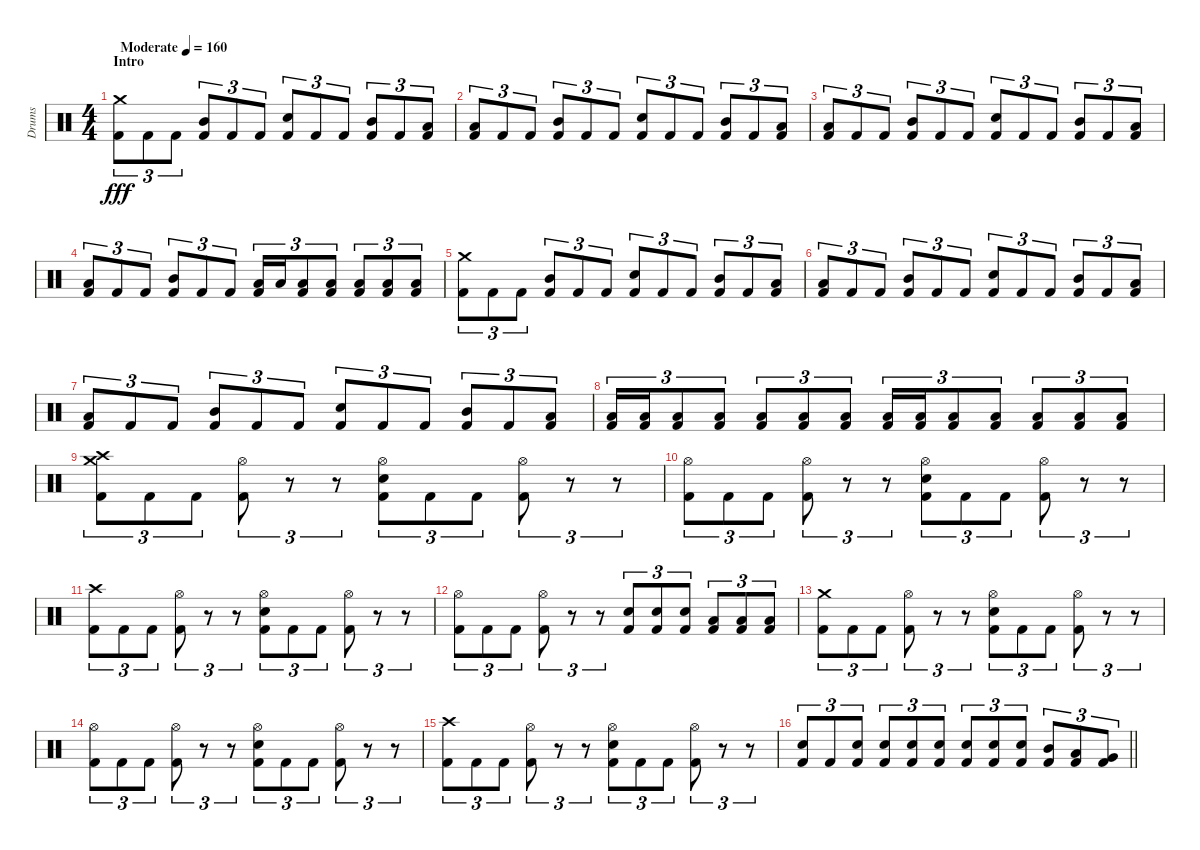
\track ("Drums" "Drums") {instrument percussion}
\staff {score}
\articulation defaults
\ts (4 4)
\section ("" "Intro")
\tempo (160 "Moderate")
\clef neutral
\ks c
("Crash medium (hit)" "Kick (hit) 2").8{tu (3 2) dy fff} "Kick (hit) 2".8{tu (3 2)} "Kick (hit) 2".8{tu (3 2)} ("Mid Tom (hit)" "Kick (hit) 2").8{tu (3 2)} "Kick (hit) 2".8{tu (3 2)} "Kick (hit) 2".8{tu (3 2)} ("Electric Snare (hit)" "Kick (hit) 2").8{tu (3 2)} "Kick (hit) 2".8{tu (3 2)} "Kick (hit) 2".8{tu (3 2)} ("Mid Tom (hit)" "Kick (hit) 2").8{tu (3 2)} "Kick (hit) 2".8{tu (3 2)} ("Low Floor Tom (hit)" "Kick (hit) 2").8{tu (3 2)} |
("Low Floor Tom (hit)" "Kick (hit) 2").8{tu (3 2)} "Kick (hit) 2".8{tu (3 2)} "Kick (hit) 2".8{tu (3 2)} ("Mid Tom (hit)" "Kick (hit) 2").8{tu (3 2)} "Kick (hit) 2".8{tu (3 2)} "Kick (hit) 2".8{tu (3 2)} ("Electric Snare (hit)" "Kick (hit) 2").8{tu (3 2)} "Kick (hit) 2".8{tu (3 2)} "Kick (hit) 2".8{tu (3 2)} ("Mid Tom (hit)" "Kick (hit) 2").8{tu (3 2)} "Kick (hit) 2".8{tu (3 2)} ("Low Floor Tom (hit)" "Kick (hit) 2").8{tu (3 2)} |
("Low Floor Tom (hit)" "Kick (hit) 2").8{tu (3 2)} "Kick (hit) 2".8{tu (3 2)} "Kick (hit) 2".8{tu (3 2)} ("Mid Tom (hit)" "Kick (hit) 2").8{tu (3 2)} "Kick (hit) 2".8{tu (3 2)} "Kick (hit) 2".8{tu (3 2)} ("Electric Snare (hit)" "Kick (hit) 2").8{tu (3 2)} "Kick (hit) 2".8{tu (3 2)} "Kick (hit) 2".8{tu (3 2)} ("Mid Tom (hit)" "Kick (hit) 2").8{tu (3 2)} "Kick (hit) 2".8{tu (3 2)} ("Low Floor Tom (hit)" "Kick (hit) 2").8{tu (3 2)} |
("Low Floor Tom (hit)" "Kick (hit) 2").8{tu (3 2)} "Kick (hit) 2".8{tu (3 2)} "Kick (hit) 2".8{tu (3 2)} ("Mid Tom (hit)" "Kick (hit) 2").8{tu (3 2)} "Kick (hit) 2".8{tu (3 2)} "Kick (hit) 2".8{tu (3 2)} ("Low Tom (hit)" "Kick (hit) 2").16{tu (3 2)} "Low Tom (hit)".16{tu (3 2)} ("Low Tom (hit)" "Kick (hit) 2").8{tu (3 2)} ("Low Tom (hit)" "Kick (hit) 2").8{tu (3 2)} ("Low Floor Tom (hit)" "Kick (hit) 2").8{tu (3 2)} ("Low Floor Tom (hit)" "Kick (hit) 2").8{tu (3 2)} ("Low Floor Tom (hit)" "Kick (hit) 2").8{tu (3 2)} |
("Crash medium (hit)" "Kick (hit) 2").8{tu (3 2)} "Kick (hit) 2".8{tu (3 2)} "Kick (hit) 2".8{tu (3 2)} ("Mid Tom (hit)" "Kick (hit) 2").8{tu (3 2)} "Kick (hit) 2".8{tu (3 2)} "Kick (hit) 2".8{tu (3 2)} ("Electric Snare (hit)" "Kick (hit) 2").8{tu (3 2)} "Kick (hit) 2".8{tu (3 2)} "Kick (hit) 2".8{tu (3 2)} ("Mid Tom (hit)" "Kick (hit) 2").8{tu (3 2)} "Kick (hit) 2".8{tu (3 2)} ("Low Floor Tom (hit)" "Kick (hit) 2").8{tu (3 2)} |
("Low Floor Tom (hit)" "Kick (hit) 2").8{tu (3 2)} "Kick (hit) 2".8{tu (3 2)} "Kick (hit) 2".8{tu (3 2)} ("Mid Tom (hit)" "Kick (hit) 2").8{tu (3 2)} "Kick (hit) 2".8{tu (3 2)} "Kick (hit) 2".8{tu (3 2)} ("Electric Snare (hit)" "Kick (hit) 2").8{tu (3 2)} "Kick (hit) 2".8{tu (3 2)} "Kick (hit) 2".8{tu (3 2)} ("Mid Tom (hit)" "Kick (hit) 2").8{tu (3 2)} "Kick (hit) 2".8{tu (3 2)} ("Low Floor Tom (hit)" "Kick (hit) 2").8{tu (3 2)} |
("Low Floor Tom (hit)" "Kick (hit) 2").8{tu (3 2)} "Kick (hit) 2".8{tu (3 2)} "Kick (hit) 2".8{tu (3 2)} ("Mid Tom (hit)" "Kick (hit) 2").8{tu (3 2)} "Kick (hit) 2".8{tu (3 2)} "Kick (hit) 2".8{tu (3 2)} ("Electric Snare (hit)" "Kick (hit) 2").8{tu (3 2)} "Kick (hit) 2".8{tu (3 2)} "Kick (hit) 2".8{tu (3 2)} ("Mid Tom (hit)" "Kick (hit) 2").8{tu (3 2)} "Kick (hit) 2".8{tu (3 2)} ("Low Floor Tom (hit)" "Kick (hit) 2").8{tu (3 2)} |
("Low Tom (hit)" "Kick (hit) 2").16{tu (3 2)} ("Low Tom (hit)" "Kick (hit) 2").16{tu (3 2)} ("Low Tom (hit)" "Kick (hit) 2").8{tu (3 2)} ("Low Tom (hit)" "Kick (hit) 2").8{tu (3 2)} ("Low Floor Tom (hit)" "Kick (hit) 2").8{tu (3 2)} ("Low Floor Tom (hit)" "Kick (hit) 2").8{tu (3 2)} ("Low Floor Tom (hit)" "Kick (hit) 2").8{tu (3 2)} ("Low Tom (hit)" "Kick (hit) 2").16{tu (3 2)} ("Low Tom (hit)" "Kick (hit) 2").16{tu (3 2)} ("Low Tom (hit)" "Kick (hit) 2").8{tu (3 2)} ("Low Tom (hit)" "Kick (hit) 2").8{tu (3 2)} ("Low Floor Tom (hit)" "Kick (hit) 2").8{tu (3 2)} ("Low Floor Tom (hit)" "Kick (hit) 2").8{tu (3 2)} ("Low Floor Tom (hit)" "Kick (hit) 2").8{tu (3 2)} |
("Crash medium (hit)" "Crash high (hit)" "Kick (hit) 2").8{tu (3 2)} "Kick (hit) 2".8{tu (3 2)} "Kick (hit) 2".8{tu (3 2)} ("Hi-Hat (open)" "Kick (hit) 2").8{tu (3 2)} r.8{tu (3 2)} r.8{tu (3 2)} ("Hi-Hat (open)" "Electric Snare (hit)" "Kick (hit) 2").8{tu (3 2)} "Kick (hit) 2".8{tu (3 2)} "Kick (hit) 2".8{tu (3 2)} ("Hi-Hat (open)" "Kick (hit) 2").8{tu (3 2)} r.8{tu (3 2)} r.8{tu (3 2)} |
("Hi-Hat (open)" "Kick (hit) 2").8{tu (3 2)} "Kick (hit) 2".8{tu (3 2)} "Kick (hit) 2".8{tu (3 2)} ("Hi-Hat (open)" "Kick (hit) 2").8{tu (3 2)} r.8{tu (3 2)} r.8{tu (3 2)} ("Hi-Hat (open)" "Electric Snare (hit)" "Kick (hit) 2").8{tu (3 2)} "Kick (hit) 2".8{tu (3 2)} "Kick (hit) 2".8{tu (3 2)} ("Hi-Hat (open)" "Kick (hit) 2").8{tu (3 2)} r.8{tu (3 2)} r.8{tu (3 2)} |
("Crash high (hit)" "Kick (hit) 2").8{tu (3 2)} "Kick (hit) 2".8{tu (3 2)} "Kick (hit) 2".8{tu (3 2)} ("Hi-Hat (open)" "Kick (hit) 2").8{tu (3 2)} r.8{tu (3 2)} r.8{tu (3 2)} ("Hi-Hat (open)" "Electric Snare (hit)" "Kick (hit) 2").8{tu (3 2)} "Kick (hit) 2".8{tu (3 2)} "Kick (hit) 2".8{tu (3 2)} ("Hi-Hat (open)" "Kick (hit) 2").8{tu (3 2)} r.8{tu (3 2)} r.8{tu (3 2)} |
("Hi-Hat (open)" "Kick (hit) 2").8{tu (3 2)} "Kick (hit) 2".8{tu (3 2)} "Kick (hit) 2".8{tu (3 2)} ("Hi-Hat (open)" "Kick (hit) 2").8{tu (3 2)} r.8{tu (3 2)} r.8{tu (3 2)} ("Electric Snare (hit)" "Kick (hit) 2").8{tu (3 2)} ("Electric Snare (hit)" "Kick (hit) 2").8{tu (3 2)} ("Electric Snare (hit)" "Kick (hit) 2").8{tu (3 2)} ("Low Floor Tom (hit)" "Kick (hit) 2").8{tu (3 2)} ("Low Floor Tom (hit)" "Kick (hit) 2").8{tu (3 2)} ("Low Floor Tom (hit)" "Kick (hit) 2").8{tu (3 2)} |
("Crash medium (hit)" "Kick (hit) 2").8{tu (3 2)} "Kick (hit) 2".8{tu (3 2)} "Kick (hit) 2".8{tu (3 2)} ("Hi-Hat (open)" "Kick (hit) 2").8{tu (3 2)} r.8{tu (3 2)} r.8{tu (3 2)} ("Hi-Hat (open)" "Electric Snare (hit)" "Kick (hit) 2").8{tu (3 2)} "Kick (hit) 2".8{tu (3 2)} "Kick (hit) 2".8{tu (3 2)} ("Hi-Hat (open)" "Kick (hit) 2").8{tu (3 2)} r.8{tu (3 2)} r.8{tu (3 2)} |
("Hi-Hat (open)" "Kick (hit) 2").8{tu (3 2)} "Kick (hit) 2".8{tu (3 2)} "Kick (hit) 2".8{tu (3 2)} ("Hi-Hat (open)" "Kick (hit) 2").8{tu (3 2)} r.8{tu (3 2)} r.8{tu (3 2)} ("Hi-Hat (open)" "Electric Snare (hit)" "Kick (hit) 2").8{tu (3 2)} "Kick (hit) 2".8{tu (3 2)} "Kick (hit) 2".8{tu (3 2)} ("Hi-Hat (open)" "Kick (hit) 2").8{tu (3 2)} r.8{tu (3 2)} r.8{tu (3 2)} |
("Crash high (hit)" "Kick (hit) 2").8{tu (3 2)} "Kick (hit) 2".8{tu (3 2)} "Kick (hit) 2".8{tu (3 2)} ("Hi-Hat (open)" "Kick (hit) 2").8{tu (3 2)} r.8{tu (3 2)} r.8{tu (3 2)} ("Hi-Hat (open)" "Electric Snare (hit)" "Kick (hit) 2").8{tu (3 2)} "Kick (hit) 2".8{tu (3 2)} "Kick (hit) 2".8{tu (3 2)} ("Hi-Hat (open)" "Kick (hit) 2").8{tu (3 2)} r.8{tu (3 2)} r.8{tu (3 2)} |
\barLineRight lightlight
("Electric Snare (hit)" "Kick (hit) 2").8{tu (3 2)} "Kick (hit) 2".8{tu (3 2)} ("Electric Snare (hit)" "Kick (hit) 2").8{tu (3 2)} ("Electric Snare (hit)" "Kick (hit) 2").8{tu (3 2)} ("Electric Snare (hit)" "Kick (hit) 2").8{tu (3 2)} ("Electric Snare (hit)" "Kick (hit) 2").8{tu (3 2)} ("Electric Snare (hit)" "Kick (hit) 2").8{tu (3 2)} ("Electric Snare (hit)" "Kick (hit) 2").8{tu (3 2)} ("Electric Snare (hit)" "Kick (hit) 2").8{tu (3 2)} ("Mid Tom (hit)" "Kick (hit) 2").8{tu (3 2)} ("Low Tom (hit)" "Kick (hit) 2").8{tu (3 2)} ("Very Low Tom (hit)" "Kick (hit) 2").8{tu (3 2)}
